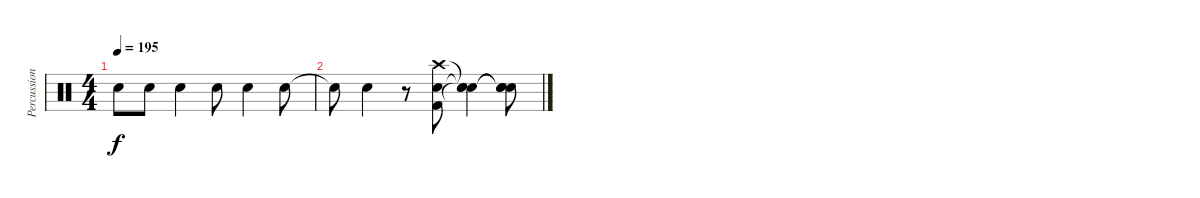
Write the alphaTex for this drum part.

\track ("Percussion" "Percussion") {instrument percussion}
\staff {score}
\articulation defaults
\ts (4 4)
\tempo 195
\clef neutral
\ks c "Electric Snare (hit)"{t}.8{dy f} "Electric Snare (hit)".8 "Electric Snare (hit)".4 "Electric Snare (hit)".8 "Electric Snare (hit)".4 "Electric Snare (hit)".8
|
"Electric Snare (hit)"{t}.8 "Electric Snare (hit)".4 r.8 ("Kick (hit) 2" "Crash high (hit)" "Electric Snare (hit)").8 ("Snare (hit)"{t} "Snare (hit)"{t} "Snare (hit)"{t}).4 ("Snare (hit)"{t} "Snare (hit)"{t} "Snare (hit)"{t}).8
